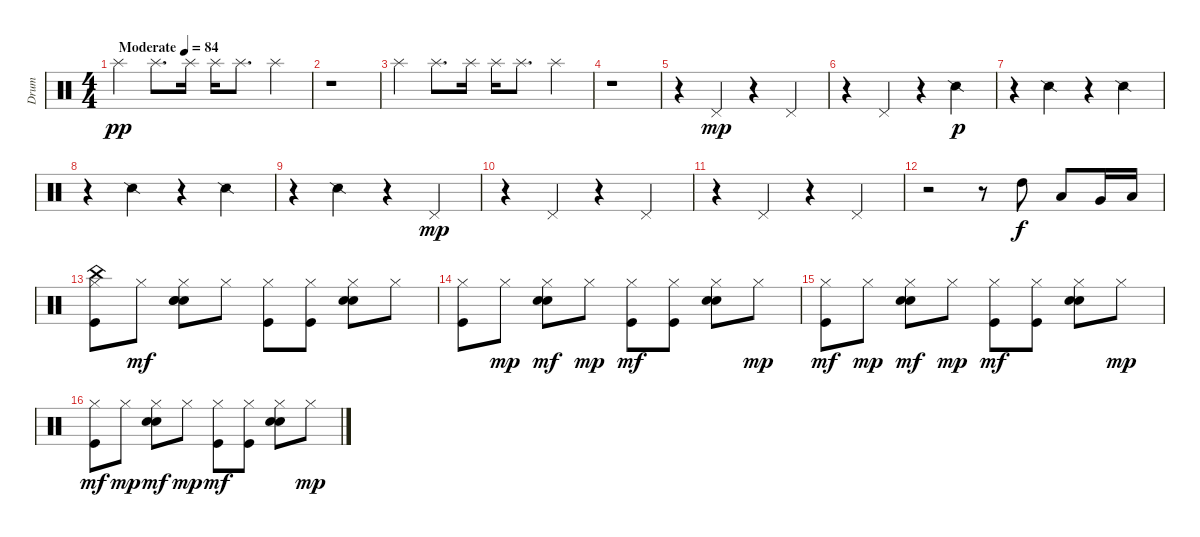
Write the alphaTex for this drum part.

\track ("Drum" "Drum") {instrument percussion}
\staff {score}
\articulation defaults
\ts (4 4)
\tempo (84 "Moderate")
\clef neutral
\ks c "Splash (hit)".4{dy pp} "Splash (hit)".8{d} "Splash (hit)".16 "Splash (hit)".16 "Splash (hit)".8{d} "Splash (hit)".4
|
r.1 |
"Splash (hit)".4 "Splash (hit)".8{d} "Splash (hit)".16 "Splash (hit)".16 "Splash (hit)".8{d} "Splash (hit)".4 |
r.1 |
r.4 "Pedal Hi-Hat (hit)".4{dy mp} r.4 "Pedal Hi-Hat (hit)".4 |
r.4 "Pedal Hi-Hat (hit)".4 r.4 "Snare (side stick) 2".4{dy p} |
r.4 "Snare (side stick) 2".4 r.4 "Snare (side stick) 2".4 |
r.4 "Snare (side stick) 2".4 r.4 "Snare (side stick) 2".4 |
r.4 "Snare (side stick) 2".4 r.4 "Pedal Hi-Hat (hit)".4{dy mp} |
r.4 "Pedal Hi-Hat (hit)".4 r.4 "Pedal Hi-Hat (hit)".4 |
r.4 "Pedal Hi-Hat (hit)".4 r.4 "Pedal Hi-Hat (hit)".4 |
r.2 r.8 "High Tom (hit)".8{dy f} "Low Tom (hit)".8 "Very Low Tom (hit)".16 "Low Floor Tom (hit)".16 |
("Hi-Hat (closed)" "China (hit)" "Kick (hit)").8 "Hi-Hat (closed)".8{dy mf} ("Hi-Hat (closed)" "Electric Snare (hit)" "Electric Snare (hit)" "Hand Clap (hit)").8 "Hi-Hat (closed)".8 ("Hi-Hat (closed)" "Kick (hit)").8 ("Hi-Hat (closed)" "Kick (hit)").8 ("Hi-Hat (closed)" "Electric Snare (hit)" "Hand Clap (hit)").8 "Hi-Hat (closed)".8 |
("Hi-Hat (closed)" "Kick (hit)").8 "Hi-Hat (closed)".8{dy mp} ("Hi-Hat (closed)" "Electric Snare (hit)" "Hand Clap (hit)").8{dy mf} "Hi-Hat (closed)".8{dy mp} ("Hi-Hat (closed)" "Kick (hit)").8{dy mf} ("Hi-Hat (closed)" "Kick (hit)").8 ("Hi-Hat (closed)" "Electric Snare (hit)" "Hand Clap (hit)").8 "Hi-Hat (closed)".8{dy mp} |
("Hi-Hat (closed)" "Kick (hit)").8{dy mf} "Hi-Hat (closed)".8{dy mp} ("Hi-Hat (closed)" "Electric Snare (hit)" "Hand Clap (hit)").8{dy mf} "Hi-Hat (closed)".8{dy mp} ("Hi-Hat (closed)" "Kick (hit)").8{dy mf} ("Hi-Hat (closed)" "Kick (hit)").8 ("Hi-Hat (closed)" "Electric Snare (hit)" "Hand Clap (hit)").8 "Hi-Hat (closed)".8{dy mp} |
("Hi-Hat (closed)" "Kick (hit)").8{dy mf} "Hi-Hat (closed)".8{dy mp} ("Hi-Hat (closed)" "Electric Snare (hit)" "Hand Clap (hit)").8{dy mf} "Hi-Hat (closed)".8{dy mp} ("Hi-Hat (closed)" "Kick (hit)").8{dy mf} ("Hi-Hat (closed)" "Kick (hit)").8 ("Hi-Hat (closed)" "Electric Snare (hit)" "Hand Clap (hit)").8 "Hi-Hat (closed)".8{dy mp}
